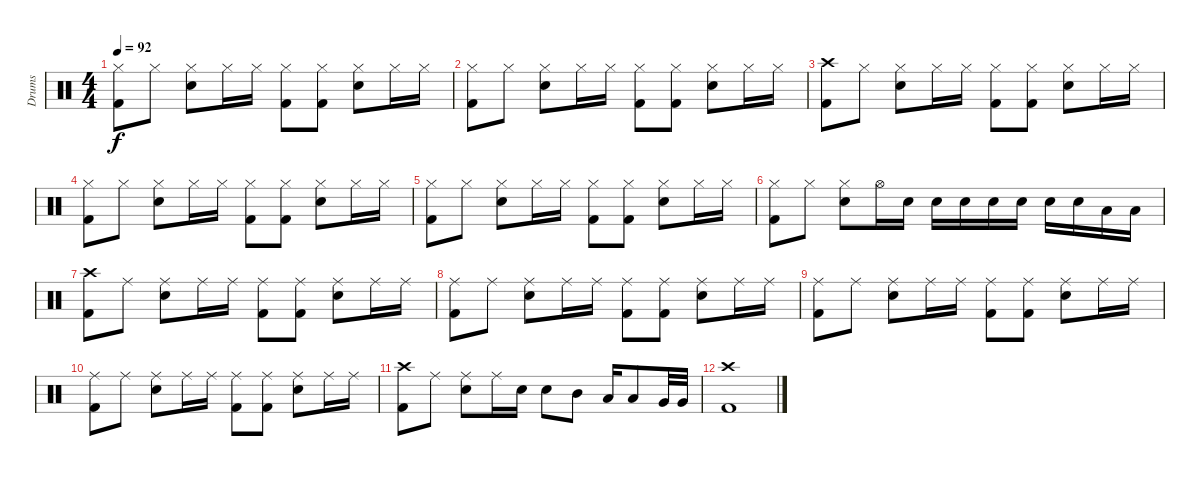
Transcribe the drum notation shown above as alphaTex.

\track ("Drums" "Drums") {instrument percussion}
\staff {score}
\articulation defaults
\ts (4 4)
\tempo 92
\clef neutral
\ks c
("Hi-Hat (closed)" "Kick (hit) 2").8{dy f} "Hi-Hat (closed)".8 ("Hi-Hat (closed)" "Snare (hit) 2").8 "Hi-Hat (closed)".16 "Hi-Hat (closed)".16 ("Hi-Hat (closed)" "Kick (hit) 2").8 ("Hi-Hat (closed)" "Kick (hit) 2").8 ("Hi-Hat (closed)" "Snare (hit) 2").8 "Hi-Hat (closed)".16 "Hi-Hat (closed)".16 |
("Hi-Hat (closed)" "Kick (hit) 2").8 "Hi-Hat (closed)".8 ("Hi-Hat (closed)" "Snare (hit) 2").8 "Hi-Hat (closed)".16 "Hi-Hat (closed)".16 ("Hi-Hat (closed)" "Kick (hit) 2").8 ("Hi-Hat (closed)" "Kick (hit) 2").8 ("Hi-Hat (closed)" "Snare (hit) 2").8 "Hi-Hat (closed)".16 "Hi-Hat (closed)".16 |
("Crash high (hit)" "Kick (hit) 2").8 "Hi-Hat (closed)".8 ("Hi-Hat (closed)" "Snare (hit) 2").8 "Hi-Hat (closed)".16 "Hi-Hat (closed)".16 ("Hi-Hat (closed)" "Kick (hit) 2").8 ("Hi-Hat (closed)" "Kick (hit) 2").8 ("Hi-Hat (closed)" "Snare (hit) 2").8 "Hi-Hat (closed)".16 "Hi-Hat (closed)".16 |
("Hi-Hat (closed)" "Kick (hit) 2").8 "Hi-Hat (closed)".8 ("Hi-Hat (closed)" "Snare (hit) 2").8 "Hi-Hat (closed)".16 "Hi-Hat (closed)".16 ("Hi-Hat (closed)" "Kick (hit) 2").8 ("Hi-Hat (closed)" "Kick (hit) 2").8 ("Hi-Hat (closed)" "Snare (hit) 2").8 "Hi-Hat (closed)".16 "Hi-Hat (closed)".16 |
("Hi-Hat (closed)" "Kick (hit) 2").8 "Hi-Hat (closed)".8 ("Hi-Hat (closed)" "Snare (hit) 2").8 "Hi-Hat (closed)".16 "Hi-Hat (closed)".16 ("Hi-Hat (closed)" "Kick (hit) 2").8 ("Hi-Hat (closed)" "Kick (hit) 2").8 ("Hi-Hat (closed)" "Snare (hit) 2").8 "Hi-Hat (closed)".16 "Hi-Hat (closed)".16 |
("Hi-Hat (closed)" "Kick (hit) 2").8 "Hi-Hat (closed)".8 ("Hi-Hat (closed)" "Snare (hit) 2").8 "Hi-Hat (open)".16 "Snare (hit) 2".16 "Snare (hit) 2".16 "Snare (hit) 2".16 "Snare (hit) 2".16 "Snare (hit) 2".16 "Snare (hit) 2".16 "Snare (hit) 2".16 "Low Tom (hit)".16 "Low Tom (hit)".16 |
("Crash high (hit)" "Kick (hit) 2").8 "Ride (middle)".8 ("Ride (middle)" "Snare (hit) 2").8 "Ride (middle)".16 "Ride (middle)".16 ("Ride (middle)" "Kick (hit) 2").8 ("Ride (middle)" "Kick (hit) 2").8 ("Ride (middle)" "Snare (hit) 2").8 "Ride (middle)".16 "Ride (middle)".16 |
("Ride (middle)" "Kick (hit) 2").8 "Ride (middle)".8 ("Ride (middle)" "Snare (hit) 2").8 "Ride (middle)".16 "Ride (middle)".16 ("Ride (middle)" "Kick (hit) 2").8 ("Ride (middle)" "Kick (hit) 2").8 ("Ride (middle)" "Snare (hit) 2").8 "Ride (middle)".16 "Ride (middle)".16 |
("Ride (middle)" "Kick (hit) 2").8 "Ride (middle)".8 ("Ride (middle)" "Snare (hit) 2").8 "Ride (middle)".16 "Ride (middle)".16 ("Ride (middle)" "Kick (hit) 2").8 ("Ride (middle)" "Kick (hit) 2").8 ("Ride (middle)" "Snare (hit) 2").8 "Ride (middle)".16 "Ride (middle)".16 |
("Ride (middle)" "Kick (hit) 2").8 "Ride (middle)".8 ("Ride (middle)" "Snare (hit) 2").8 "Ride (middle)".16 "Ride (middle)".16 ("Ride (middle)" "Kick (hit) 2").8 ("Ride (middle)" "Kick (hit) 2").8 ("Ride (middle)" "Snare (hit) 2").8 "Ride (middle)".16 "Ride (middle)".16 |
("Crash high (hit)" "Kick (hit) 2").8 "Ride (middle)".8 ("Ride (middle)" "Snare (hit) 2").8 "Ride (middle)".16 "Snare (hit) 2".16 "Snare (hit) 2".8 "Mid Tom (hit)".8 "Low Tom (hit)".16 "Low Tom (hit)".8 "Very Low Tom (hit)".32 "Very Low Tom (hit)".32 |
("Crash high (hit)" "Kick (hit) 2").1
